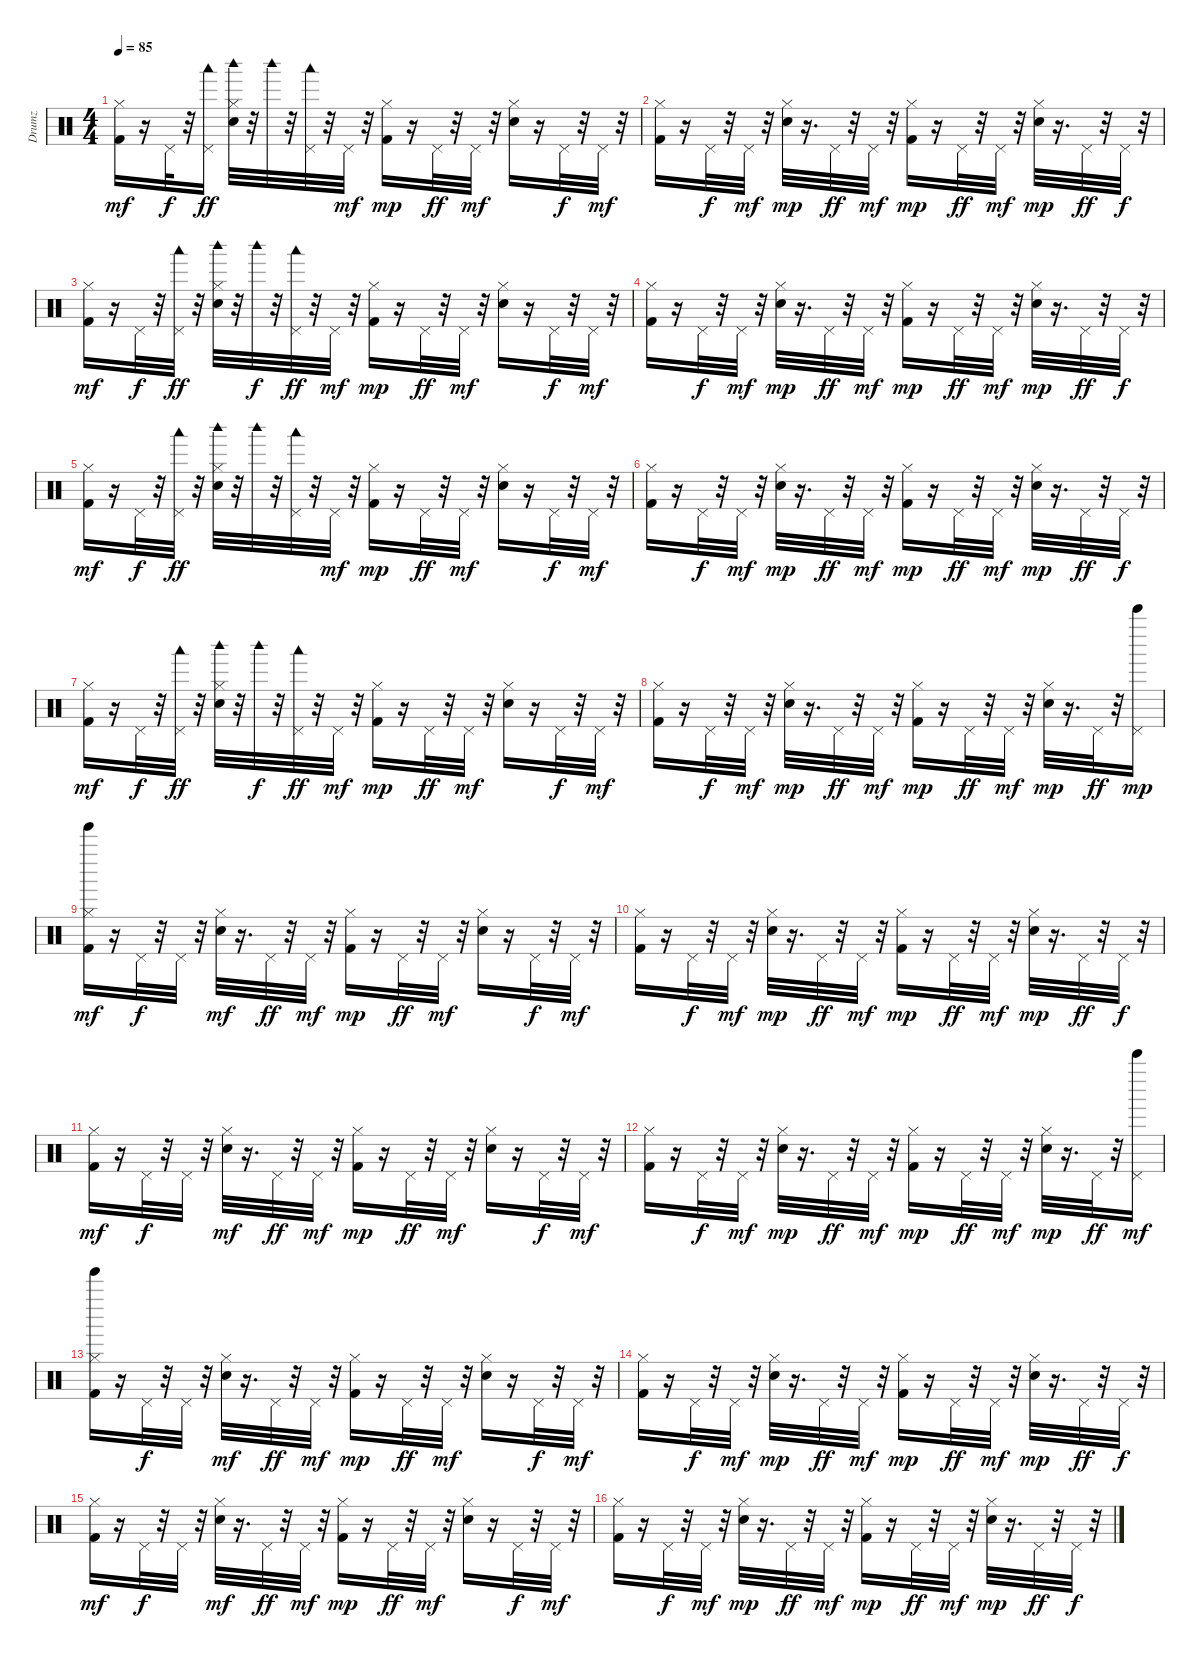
\track ("Drumz" "Drumz") {instrument percussion}
\staff {score}
\articulation defaults
\ts (4 4)
\tempo 85
\clef neutral
\ks c
("Kick (hit) 2" "Hi-Hat (closed)").16{dy mf volume 12} r.16 "Pedal Hi-Hat (hit)".32{dy f} r.32 ("Pedal Hi-Hat (hit)" "Woodblock low (hit)").16{dy ff} ("Hand Clap (hit)" "Hi-Hat (closed)" "Woodblock high (hit)").32 r.32 "Woodblock high (hit)".32 r.32 ("Pedal Hi-Hat (hit)" "Woodblock low (hit)").32 r.32 "Pedal Hi-Hat (hit)".32{dy mf} r.32 ("Kick (hit) 2" "Hi-Hat (closed)").16{dy mp} r.16 "Pedal Hi-Hat (hit)".32{dy ff} r.32 "Pedal Hi-Hat (hit)".32{dy mf} r.32 ("Hand Clap (hit)" "Hi-Hat (closed)").16 r.16 "Pedal Hi-Hat (hit)".32{dy f} r.32 "Pedal Hi-Hat (hit)".32{dy mf} r.32 |
("Kick (hit) 2" "Hi-Hat (closed)").16 r.16 "Pedal Hi-Hat (hit)".32{dy f} r.32 "Pedal Hi-Hat (hit)".32{dy mf} r.32 ("Hand Clap (hit)" "Hi-Hat (closed)").32{dy mp} r.16{d} "Pedal Hi-Hat (hit)".32{dy ff} r.32 "Pedal Hi-Hat (hit)".32{dy mf} r.32 ("Kick (hit) 2" "Hi-Hat (closed)").16{dy mp} r.16 "Pedal Hi-Hat (hit)".32{dy ff} r.32 "Pedal Hi-Hat (hit)".32{dy mf} r.32 ("Hand Clap (hit)" "Hi-Hat (closed)").32{dy mp} r.16{d} "Pedal Hi-Hat (hit)".32{dy ff} r.32 "Pedal Hi-Hat (hit)".32{dy f} r.32 |
("Kick (hit) 2" "Hi-Hat (closed)").16{dy mf} r.16 "Pedal Hi-Hat (hit)".32{dy f} r.32 ("Pedal Hi-Hat (hit)" "Woodblock low (hit)").32{dy ff} r.32 ("Hand Clap (hit)" "Hi-Hat (closed)" "Woodblock high (hit)").32 r.32 "Woodblock high (hit)".32{dy f} r.32 ("Pedal Hi-Hat (hit)" "Woodblock low (hit)").32{dy ff} r.32 "Pedal Hi-Hat (hit)".32{dy mf} r.32 ("Kick (hit) 2" "Hi-Hat (closed)").16{dy mp} r.16 "Pedal Hi-Hat (hit)".32{dy ff} r.32 "Pedal Hi-Hat (hit)".32{dy mf} r.32 ("Hand Clap (hit)" "Hi-Hat (closed)").16 r.16 "Pedal Hi-Hat (hit)".32{dy f} r.32 "Pedal Hi-Hat (hit)".32{dy mf} r.32 |
("Kick (hit) 2" "Hi-Hat (closed)").16 r.16 "Pedal Hi-Hat (hit)".32{dy f} r.32 "Pedal Hi-Hat (hit)".32{dy mf} r.32 ("Hand Clap (hit)" "Hi-Hat (closed)").32{dy mp} r.16{d} "Pedal Hi-Hat (hit)".32{dy ff} r.32 "Pedal Hi-Hat (hit)".32{dy mf} r.32 ("Kick (hit) 2" "Hi-Hat (closed)").16{dy mp} r.16 "Pedal Hi-Hat (hit)".32{dy ff} r.32 "Pedal Hi-Hat (hit)".32{dy mf} r.32 ("Hand Clap (hit)" "Hi-Hat (closed)").32{dy mp} r.16{d} "Pedal Hi-Hat (hit)".32{dy ff} r.32 "Pedal Hi-Hat (hit)".32{dy f} r.32 |
("Kick (hit) 2" "Hi-Hat (closed)").16{dy mf} r.16 "Pedal Hi-Hat (hit)".32{dy f} r.32 ("Pedal Hi-Hat (hit)" "Woodblock low (hit)").32{dy ff} r.32 ("Hand Clap (hit)" "Hi-Hat (closed)" "Woodblock high (hit)").32 r.32 "Woodblock high (hit)".32 r.32 ("Pedal Hi-Hat (hit)" "Woodblock low (hit)").32 r.32 "Pedal Hi-Hat (hit)".32{dy mf} r.32 ("Kick (hit) 2" "Hi-Hat (closed)").16{dy mp} r.16 "Pedal Hi-Hat (hit)".32{dy ff} r.32 "Pedal Hi-Hat (hit)".32{dy mf} r.32 ("Hand Clap (hit)" "Hi-Hat (closed)").16 r.16 "Pedal Hi-Hat (hit)".32{dy f} r.32 "Pedal Hi-Hat (hit)".32{dy mf} r.32 |
("Kick (hit) 2" "Hi-Hat (closed)").16 r.16 "Pedal Hi-Hat (hit)".32{dy f} r.32 "Pedal Hi-Hat (hit)".32{dy mf} r.32 ("Hand Clap (hit)" "Hi-Hat (closed)").32{dy mp} r.16{d} "Pedal Hi-Hat (hit)".32{dy ff} r.32 "Pedal Hi-Hat (hit)".32{dy mf} r.32 ("Kick (hit) 2" "Hi-Hat (closed)").16{dy mp} r.16 "Pedal Hi-Hat (hit)".32{dy ff} r.32 "Pedal Hi-Hat (hit)".32{dy mf} r.32 ("Hand Clap (hit)" "Hi-Hat (closed)").32{dy mp} r.16{d} "Pedal Hi-Hat (hit)".32{dy ff} r.32 "Pedal Hi-Hat (hit)".32{dy f} r.32 |
("Kick (hit) 2" "Hi-Hat (closed)").16{dy mf} r.16 "Pedal Hi-Hat (hit)".32{dy f} r.32 ("Pedal Hi-Hat (hit)" "Woodblock low (hit)").32{dy ff} r.32 ("Hand Clap (hit)" "Hi-Hat (closed)" "Woodblock high (hit)").32 r.32 "Woodblock high (hit)".32{dy f} r.32 ("Pedal Hi-Hat (hit)" "Woodblock low (hit)").32{dy ff} r.32 "Pedal Hi-Hat (hit)".32{dy mf} r.32 ("Kick (hit) 2" "Hi-Hat (closed)").16{dy mp} r.16 "Pedal Hi-Hat (hit)".32{dy ff} r.32 "Pedal Hi-Hat (hit)".32{dy mf} r.32 ("Hand Clap (hit)" "Hi-Hat (closed)").16 r.16 "Pedal Hi-Hat (hit)".32{dy f} r.32 "Pedal Hi-Hat (hit)".32{dy mf} r.32 |
("Kick (hit) 2" "Hi-Hat (closed)").16 r.16 "Pedal Hi-Hat (hit)".32{dy f} r.32 "Pedal Hi-Hat (hit)".32{dy mf} r.32 ("Hand Clap (hit)" "Hi-Hat (closed)").32{dy mp} r.16{d} "Pedal Hi-Hat (hit)".32{dy ff} r.32 "Pedal Hi-Hat (hit)".32{dy mf} r.32 ("Kick (hit) 2" "Hi-Hat (closed)").16{dy mp} r.16 "Pedal Hi-Hat (hit)".32{dy ff} r.32 "Pedal Hi-Hat (hit)".32{dy mf} r.32 ("Hand Clap (hit)" "Hi-Hat (closed)").32{dy mp} r.16{d} "Pedal Hi-Hat (hit)".32{dy ff} r.32 ("Pedal Hi-Hat (hit)" "Bell Tree (hit)").16{dy mp} |
("Tinkle Bell (hit)" "Kick (hit) 2" "Hi-Hat (closed)").16{dy mf volume 12} r.16 "Pedal Hi-Hat (hit)".32{dy f} r.32 "Pedal Hi-Hat (hit)".32 r.32 ("Hand Clap (hit)" "Hi-Hat (closed)").32{dy mf} r.16{d} "Pedal Hi-Hat (hit)".32{dy ff} r.32 "Pedal Hi-Hat (hit)".32{dy mf} r.32 ("Kick (hit) 2" "Hi-Hat (closed)").16{dy mp} r.16 "Pedal Hi-Hat (hit)".32{dy ff} r.32 "Pedal Hi-Hat (hit)".32{dy mf} r.32 ("Hand Clap (hit)" "Hi-Hat (closed)").16 r.16 "Pedal Hi-Hat (hit)".32{dy f} r.32 "Pedal Hi-Hat (hit)".32{dy mf} r.32 |
("Kick (hit) 2" "Hi-Hat (closed)").16 r.16 "Pedal Hi-Hat (hit)".32{dy f} r.32 "Pedal Hi-Hat (hit)".32{dy mf} r.32 ("Hand Clap (hit)" "Hi-Hat (closed)").32{dy mp} r.16{d} "Pedal Hi-Hat (hit)".32{dy ff} r.32 "Pedal Hi-Hat (hit)".32{dy mf} r.32 ("Kick (hit) 2" "Hi-Hat (closed)").16{dy mp} r.16 "Pedal Hi-Hat (hit)".32{dy ff} r.32 "Pedal Hi-Hat (hit)".32{dy mf} r.32 ("Hand Clap (hit)" "Hi-Hat (closed)").32{dy mp} r.16{d} "Pedal Hi-Hat (hit)".32{dy ff} r.32 "Pedal Hi-Hat (hit)".32{dy f} r.32 |
("Kick (hit) 2" "Hi-Hat (closed)").16{dy mf} r.16 "Pedal Hi-Hat (hit)".32{dy f} r.32 "Pedal Hi-Hat (hit)".32 r.32 ("Hand Clap (hit)" "Hi-Hat (closed)").32{dy mf} r.16{d} "Pedal Hi-Hat (hit)".32{dy ff} r.32 "Pedal Hi-Hat (hit)".32{dy mf} r.32 ("Kick (hit) 2" "Hi-Hat (closed)").16{dy mp} r.16 "Pedal Hi-Hat (hit)".32{dy ff} r.32 "Pedal Hi-Hat (hit)".32{dy mf} r.32 ("Hand Clap (hit)" "Hi-Hat (closed)").16 r.16 "Pedal Hi-Hat (hit)".32{dy f} r.32 "Pedal Hi-Hat (hit)".32{dy mf} r.32 |
("Kick (hit) 2" "Hi-Hat (closed)").16 r.16 "Pedal Hi-Hat (hit)".32{dy f} r.32 "Pedal Hi-Hat (hit)".32{dy mf} r.32 ("Hand Clap (hit)" "Hi-Hat (closed)").32{dy mp} r.16{d} "Pedal Hi-Hat (hit)".32{dy ff} r.32 "Pedal Hi-Hat (hit)".32{dy mf} r.32 ("Kick (hit) 2" "Hi-Hat (closed)").16{dy mp} r.16 "Pedal Hi-Hat (hit)".32{dy ff} r.32 "Pedal Hi-Hat (hit)".32{dy mf} r.32 ("Hand Clap (hit)" "Hi-Hat (closed)").32{dy mp} r.16{d} "Pedal Hi-Hat (hit)".32{dy ff} r.32 ("Pedal Hi-Hat (hit)" "Bell Tree (hit)").16{dy mf} |
("Kick (hit) 2" "Hi-Hat (closed)" "Tinkle Bell (hit)").16 r.16 "Pedal Hi-Hat (hit)".32{dy f} r.32 "Pedal Hi-Hat (hit)".32 r.32 ("Hand Clap (hit)" "Hi-Hat (closed)").32{dy mf} r.16{d} "Pedal Hi-Hat (hit)".32{dy ff} r.32 "Pedal Hi-Hat (hit)".32{dy mf} r.32 ("Kick (hit) 2" "Hi-Hat (closed)").16{dy mp} r.16 "Pedal Hi-Hat (hit)".32{dy ff} r.32 "Pedal Hi-Hat (hit)".32{dy mf} r.32 ("Hand Clap (hit)" "Hi-Hat (closed)").16 r.16 "Pedal Hi-Hat (hit)".32{dy f} r.32 "Pedal Hi-Hat (hit)".32{dy mf} r.32 |
("Kick (hit) 2" "Hi-Hat (closed)").16 r.16 "Pedal Hi-Hat (hit)".32{dy f} r.32 "Pedal Hi-Hat (hit)".32{dy mf} r.32 ("Hand Clap (hit)" "Hi-Hat (closed)").32{dy mp} r.16{d} "Pedal Hi-Hat (hit)".32{dy ff} r.32 "Pedal Hi-Hat (hit)".32{dy mf} r.32 ("Kick (hit) 2" "Hi-Hat (closed)").16{dy mp} r.16 "Pedal Hi-Hat (hit)".32{dy ff} r.32 "Pedal Hi-Hat (hit)".32{dy mf} r.32 ("Hand Clap (hit)" "Hi-Hat (closed)").32{dy mp} r.16{d} "Pedal Hi-Hat (hit)".32{dy ff} r.32 "Pedal Hi-Hat (hit)".32{dy f} r.32 |
("Kick (hit) 2" "Hi-Hat (closed)").16{dy mf} r.16 "Pedal Hi-Hat (hit)".32{dy f} r.32 "Pedal Hi-Hat (hit)".32 r.32 ("Hand Clap (hit)" "Hi-Hat (closed)").32{dy mf} r.16{d} "Pedal Hi-Hat (hit)".32{dy ff} r.32 "Pedal Hi-Hat (hit)".32{dy mf} r.32 ("Kick (hit) 2" "Hi-Hat (closed)").16{dy mp} r.16 "Pedal Hi-Hat (hit)".32{dy ff} r.32 "Pedal Hi-Hat (hit)".32{dy mf} r.32 ("Hand Clap (hit)" "Hi-Hat (closed)").16 r.16 "Pedal Hi-Hat (hit)".32{dy f} r.32 "Pedal Hi-Hat (hit)".32{dy mf} r.32 |
("Kick (hit) 2" "Hi-Hat (closed)").16 r.16 "Pedal Hi-Hat (hit)".32{dy f} r.32 "Pedal Hi-Hat (hit)".32{dy mf} r.32 ("Hand Clap (hit)" "Hi-Hat (closed)").32{dy mp} r.16{d} "Pedal Hi-Hat (hit)".32{dy ff} r.32 "Pedal Hi-Hat (hit)".32{dy mf} r.32 ("Kick (hit) 2" "Hi-Hat (closed)").16{dy mp} r.16 "Pedal Hi-Hat (hit)".32{dy ff} r.32 "Pedal Hi-Hat (hit)".32{dy mf} r.32 ("Hand Clap (hit)" "Hi-Hat (closed)").32{dy mp} r.16{d} "Pedal Hi-Hat (hit)".32{dy ff} r.32 "Pedal Hi-Hat (hit)".32{dy f} r.32
